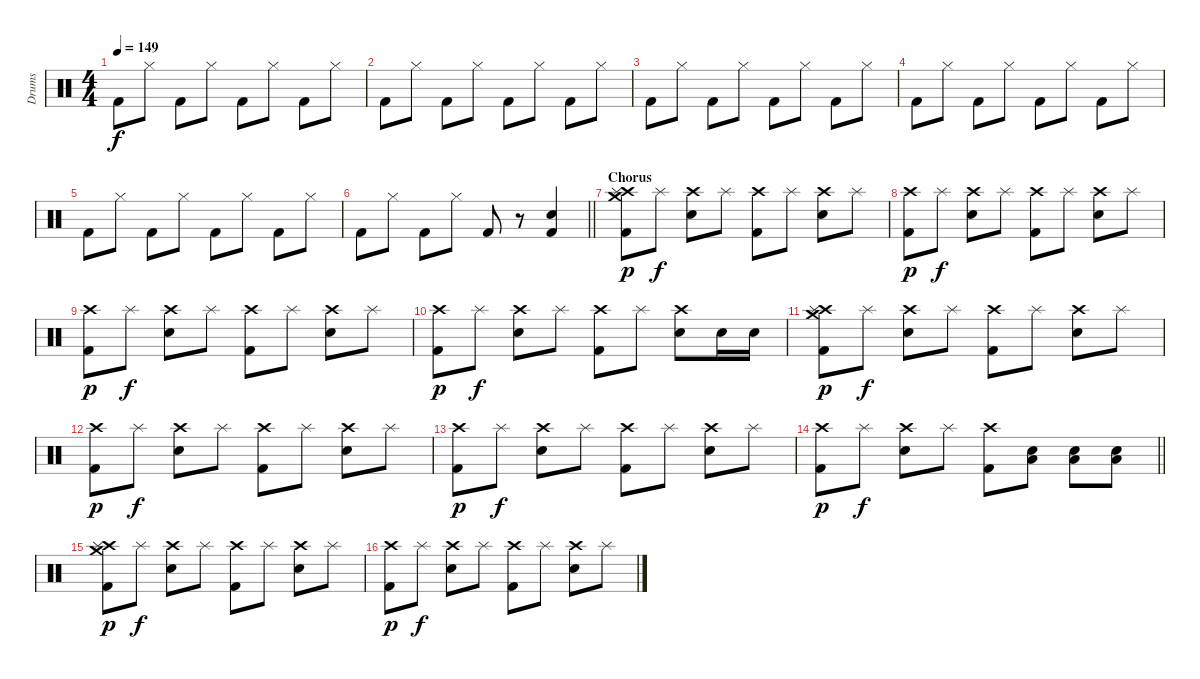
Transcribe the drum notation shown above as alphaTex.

\track ("Drums" "Drums") {instrument percussion}
\staff {score}
\articulation defaults
\ts (4 4)
\tempo 149
\clef neutral
\ks c "Kick (hit) 2".8{dy f} "Hi-Hat (closed)".8 "Kick (hit) 2".8 "Hi-Hat (closed)".8 "Kick (hit) 2".8 "Hi-Hat (closed)".8 "Kick (hit) 2".8 "Hi-Hat (closed)".8
|
"Kick (hit) 2".8 "Hi-Hat (closed)".8 "Kick (hit) 2".8 "Hi-Hat (closed)".8 "Kick (hit) 2".8 "Hi-Hat (closed)".8 "Kick (hit) 2".8 "Hi-Hat (closed)".8 |
"Kick (hit) 2".8 "Hi-Hat (closed)".8 "Kick (hit) 2".8 "Hi-Hat (closed)".8 "Kick (hit) 2".8 "Hi-Hat (closed)".8 "Kick (hit) 2".8 "Hi-Hat (closed)".8 |
"Kick (hit) 2".8 "Hi-Hat (closed)".8 "Kick (hit) 2".8 "Hi-Hat (closed)".8 "Kick (hit) 2".8 "Hi-Hat (closed)".8 "Kick (hit) 2".8 "Hi-Hat (closed)".8 |
"Kick (hit) 2".8 "Hi-Hat (closed)".8 "Kick (hit) 2".8 "Hi-Hat (closed)".8 "Kick (hit) 2".8 "Hi-Hat (closed)".8 "Kick (hit) 2".8 "Hi-Hat (closed)".8 |
\barLineRight lightlight "Kick (hit) 2".8 "Hi-Hat (closed)".8 "Kick (hit) 2".8 "Hi-Hat (closed)".8 "Kick (hit) 2".8
r.8 ("Snare (hit) 2" "Kick (hit) 2").4 |
\section ("" "Chorus")
("Crash medium (hit)" "Crash high (hit)" "Splash (hit)" "Kick (hit) 2").8{dy p} "Splash (hit)".8{dy f} ("Crash high (hit)" "Snare (hit) 2").8 "Splash (hit)".8 ("Crash high (hit)" "Kick (hit) 2").8 "Splash (hit)".8 ("Crash high (hit)" "Snare (hit) 2").8 "Splash (hit)".8 |
("Crash high (hit)" "Kick (hit) 2").8{dy p} "Splash (hit)".8{dy f} ("Crash high (hit)" "Snare (hit) 2").8 "Splash (hit)".8 ("Crash high (hit)" "Kick (hit) 2").8 "Splash (hit)".8 ("Crash high (hit)" "Snare (hit) 2").8 "Splash (hit)".8 |
("Crash high (hit)" "Kick (hit) 2").8{dy p} "Splash (hit)".8{dy f} ("Crash high (hit)" "Snare (hit) 2").8 "Splash (hit)".8 ("Crash high (hit)" "Kick (hit) 2").8 "Splash (hit)".8 ("Crash high (hit)" "Snare (hit) 2").8 "Splash (hit)".8 |
("Crash high (hit)" "Kick (hit) 2").8{dy p} "Splash (hit)".8{dy f} ("Crash high (hit)" "Snare (hit) 2").8 "Splash (hit)".8 ("Crash high (hit)" "Kick (hit) 2").8 "Splash (hit)".8 ("Crash high (hit)" "Snare (hit) 2").8 "Snare (hit) 2".16 "Snare (hit) 2".16 |
("Crash medium (hit)" "Crash high (hit)" "Splash (hit)" "Kick (hit) 2").8{dy p} "Splash (hit)".8{dy f} ("Crash high (hit)" "Snare (hit) 2").8 "Splash (hit)".8 ("Crash high (hit)" "Kick (hit) 2").8 "Splash (hit)".8 ("Crash high (hit)" "Snare (hit) 2").8 "Splash (hit)".8 |
("Crash high (hit)" "Kick (hit) 2").8{dy p} "Splash (hit)".8{dy f} ("Crash high (hit)" "Snare (hit) 2").8 "Splash (hit)".8 ("Crash high (hit)" "Kick (hit) 2").8 "Splash (hit)".8 ("Crash high (hit)" "Snare (hit) 2").8 "Splash (hit)".8 |
("Crash high (hit)" "Kick (hit) 2").8{dy p} "Splash (hit)".8{dy f} ("Crash high (hit)" "Snare (hit) 2").8 "Splash (hit)".8 ("Crash high (hit)" "Kick (hit) 2").8 "Splash (hit)".8 ("Crash high (hit)" "Snare (hit) 2").8 "Splash (hit)".8 |
\barLineRight lightlight
("Crash high (hit)" "Kick (hit) 2").8{dy p} "Splash (hit)".8{dy f} ("Crash high (hit)" "Snare (hit) 2").8 "Splash (hit)".8 ("Crash high (hit)" "Kick (hit) 2").8 ("Low Floor Tom (hit)" "Snare (hit) 2").8 ("Low Floor Tom (hit)" "Snare (hit) 2").8 ("Low Floor Tom (hit)" "Snare (hit) 2").8 |
("Crash medium (hit)" "Crash high (hit)" "Splash (hit)" "Kick (hit) 2").8{dy p} "Splash (hit)".8{dy f} ("Crash high (hit)" "Snare (hit) 2").8 "Splash (hit)".8 ("Crash high (hit)" "Kick (hit) 2").8 "Splash (hit)".8 ("Crash high (hit)" "Snare (hit) 2").8 "Splash (hit)".8 |
("Crash high (hit)" "Kick (hit) 2").8{dy p} "Splash (hit)".8{dy f} ("Crash high (hit)" "Snare (hit) 2").8 "Splash (hit)".8 ("Crash high (hit)" "Kick (hit) 2").8 "Splash (hit)".8 ("Crash high (hit)" "Snare (hit) 2").8 "Splash (hit)".8
